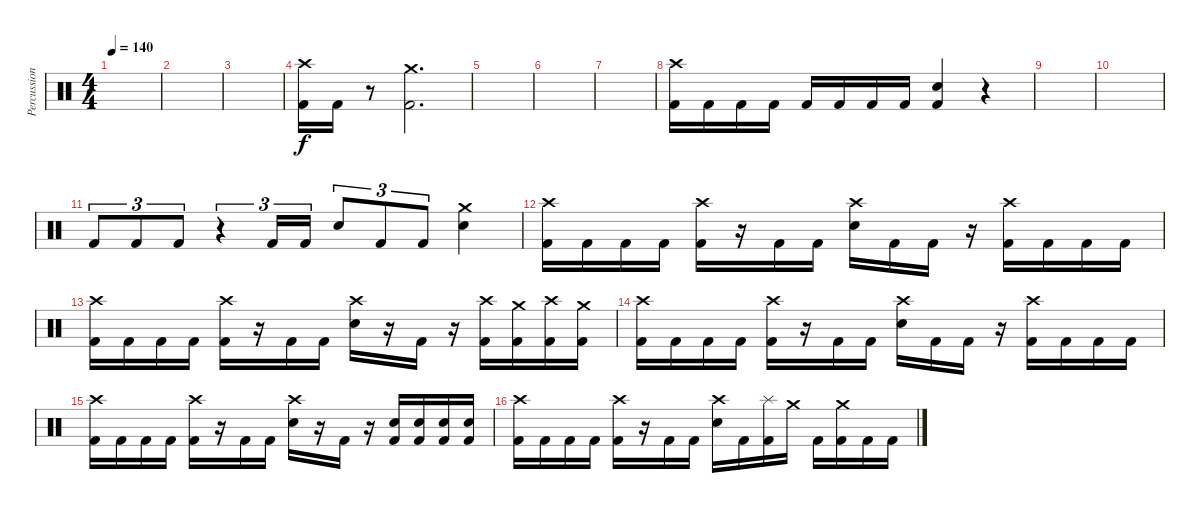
\track ("Percussion" "Percussion") {instrument percussion}
\staff {score}
\articulation defaults
\ts (4 4)
\tempo 140
\clef neutral
\ks c
|
|
|
("Crash high (hit)" "Kick (hit) 2").16 "Kick (hit) 2".16 r.8 ("Crash medium (hit)" "Kick (hit) 2").2{d} |
|
|
|
("Crash high (hit)" "Kick (hit) 2").16 "Kick (hit) 2".16 "Kick (hit) 2".16 "Kick (hit) 2".16 "Kick (hit) 2".16 "Kick (hit) 2".16 "Kick (hit) 2".16 "Kick (hit) 2".16 ("Electric Snare (hit)" "Kick (hit) 2").4 r.4 |
|
|
"Kick (hit) 2".8{tu (3 2)} "Kick (hit) 2".8{tu (3 2)} "Kick (hit) 2".8{tu (3 2)} r.4{tu (3 2)} "Kick (hit) 2".16{tu (3 2)} "Kick (hit) 2".16{tu (3 2)} "Electric Snare (hit)".8{tu (3 2)} "Kick (hit) 2".8{tu (3 2)} "Kick (hit) 2".8{tu (3 2)} ("Crash medium (hit)" "Electric Snare (hit)").4 |
("Crash high (hit)" "Kick (hit) 2").16 "Kick (hit) 2".16 "Kick (hit) 2".16 "Kick (hit) 2".16 ("Crash high (hit)" "Kick (hit) 2").16 r.16 "Kick (hit) 2".16 "Kick (hit) 2".16 ("Crash high (hit)" "Electric Snare (hit)").16 "Kick (hit) 2".16 "Kick (hit) 2".16 r.16 ("Crash high (hit)" "Kick (hit) 2").16 "Kick (hit) 2".16 "Kick (hit) 2".16 "Kick (hit) 2".16 |
("Crash high (hit)" "Kick (hit) 2").16 "Kick (hit) 2".16 "Kick (hit) 2".16 "Kick (hit) 2".16 ("Crash high (hit)" "Kick (hit) 2").16 r.16 "Kick (hit) 2".16 "Kick (hit) 2".16 ("Crash high (hit)" "Electric Snare (hit)").16 r.16 "Kick (hit) 2".16 r.16 ("Crash high (hit)" "Kick (hit) 2").16 ("Crash medium (hit)" "Kick (hit) 2").16 ("Crash high (hit)" "Kick (hit) 2").16 ("Crash medium (hit)" "Kick (hit) 2").16 |
("Crash high (hit)" "Kick (hit) 2").16 "Kick (hit) 2".16 "Kick (hit) 2".16 "Kick (hit) 2".16 ("Crash high (hit)" "Kick (hit) 2").16 r.16 "Kick (hit) 2".16 "Kick (hit) 2".16 ("Crash high (hit)" "Electric Snare (hit)").16 "Kick (hit) 2".16 "Kick (hit) 2".16 r.16 ("Crash high (hit)" "Kick (hit) 2").16 "Kick (hit) 2".16 "Kick (hit) 2".16 "Kick (hit) 2".16 |
("Crash high (hit)" "Kick (hit) 2").16 "Kick (hit) 2".16 "Kick (hit) 2".16 "Kick (hit) 2".16 ("Crash high (hit)" "Kick (hit) 2").16 r.16 "Kick (hit) 2".16 "Kick (hit) 2".16 ("Crash high (hit)" "Electric Snare (hit)").16 r.16 "Kick (hit) 2".16 r.16 ("Electric Snare (hit)" "Kick (hit) 2").16 ("Electric Snare (hit)" "Kick (hit) 2").16 ("Electric Snare (hit)" "Kick (hit) 2").16 ("Electric Snare (hit)" "Kick (hit) 2").16 |
("Crash high (hit)" "Kick (hit) 2").16 "Kick (hit) 2".16 "Kick (hit) 2".16 "Kick (hit) 2".16 ("Crash high (hit)" "Kick (hit) 2").16 r.16 "Kick (hit) 2".16 "Kick (hit) 2".16 ("Crash high (hit)" "Electric Snare (hit)").16 "Kick (hit) 2".16 ("Splash (hit)" "Kick (hit) 2").16 "Crash medium (hit)".16 "Kick (hit) 2".16 ("Crash medium (hit)" "Kick (hit) 2").16 "Kick (hit) 2".16 "Kick (hit) 2".16
